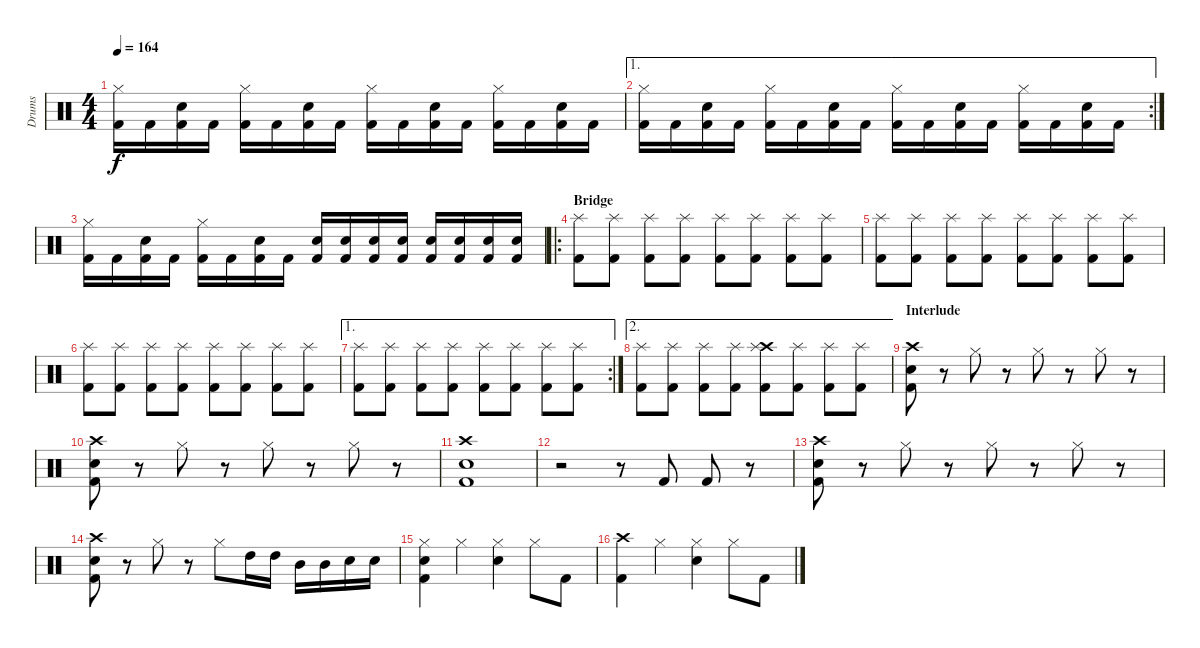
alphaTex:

\track ("Drums" "Drums") {instrument percussion}
\staff {score}
\articulation defaults
\ts (4 4)
\tempo 164
\clef neutral
\ks c
("Hi-Hat (closed)" "Kick (hit) 2").16{dy f} "Kick (hit) 2".16 ("Snare (hit) 2" "Kick (hit) 2").16 "Kick (hit) 2".16 ("Hi-Hat (closed)" "Kick (hit) 2").16 "Kick (hit) 2".16 ("Snare (hit) 2" "Kick (hit) 2").16 "Kick (hit) 2".16 ("Hi-Hat (closed)" "Kick (hit) 2").16 "Kick (hit) 2".16 ("Snare (hit) 2" "Kick (hit) 2").16 "Kick (hit) 2".16 ("Hi-Hat (closed)" "Kick (hit) 2").16 "Kick (hit) 2".16 ("Snare (hit) 2" "Kick (hit) 2").16 "Kick (hit) 2".16 |
\ae 1
\rc 2
("Hi-Hat (closed)" "Kick (hit) 2").16 "Kick (hit) 2".16 ("Snare (hit) 2" "Kick (hit) 2").16 "Kick (hit) 2".16 ("Hi-Hat (closed)" "Kick (hit) 2").16 "Kick (hit) 2".16 ("Snare (hit) 2" "Kick (hit) 2").16 "Kick (hit) 2".16 ("Hi-Hat (closed)" "Kick (hit) 2").16 "Kick (hit) 2".16 ("Snare (hit) 2" "Kick (hit) 2").16 "Kick (hit) 2".16 ("Hi-Hat (closed)" "Kick (hit) 2").16 "Kick (hit) 2".16 ("Snare (hit) 2" "Kick (hit) 2").16 "Kick (hit) 2".16 |
("Hi-Hat (closed)" "Kick (hit) 2").16 "Kick (hit) 2".16 ("Snare (hit) 2" "Kick (hit) 2").16 "Kick (hit) 2".16 ("Hi-Hat (closed)" "Kick (hit) 2").16 "Kick (hit) 2".16 ("Snare (hit) 2" "Kick (hit) 2").16 "Kick (hit) 2".16 ("Snare (hit) 2" "Kick (hit) 2").16 ("Snare (hit) 2" "Kick (hit) 2").16 ("Snare (hit) 2" "Kick (hit) 2").16 ("Snare (hit) 2" "Kick (hit) 2").16 ("Snare (hit) 2" "Kick (hit) 2").16 ("Snare (hit) 2" "Kick (hit) 2").16 ("Snare (hit) 2" "Kick (hit) 2").16 ("Snare (hit) 2" "Kick (hit) 2").16 |
\ro
\section ("" "Bridge")
("Splash (hit)" "Kick (hit) 2").8 ("Splash (hit)" "Kick (hit) 2").8 ("Splash (hit)" "Kick (hit) 2").8 ("Splash (hit)" "Kick (hit) 2").8 ("Splash (hit)" "Kick (hit) 2").8 ("Splash (hit)" "Kick (hit) 2").8 ("Splash (hit)" "Kick (hit) 2").8 ("Splash (hit)" "Kick (hit) 2").8 |
("Splash (hit)" "Kick (hit) 2").8 ("Splash (hit)" "Kick (hit) 2").8 ("Splash (hit)" "Kick (hit) 2").8 ("Splash (hit)" "Kick (hit) 2").8 ("Splash (hit)" "Kick (hit) 2").8 ("Splash (hit)" "Kick (hit) 2").8 ("Splash (hit)" "Kick (hit) 2").8 ("Splash (hit)" "Kick (hit) 2").8 |
("Splash (hit)" "Kick (hit) 2").8 ("Splash (hit)" "Kick (hit) 2").8 ("Splash (hit)" "Kick (hit) 2").8 ("Splash (hit)" "Kick (hit) 2").8 ("Splash (hit)" "Kick (hit) 2").8 ("Splash (hit)" "Kick (hit) 2").8 ("Splash (hit)" "Kick (hit) 2").8 ("Splash (hit)" "Kick (hit) 2").8 |
\ae 1
\rc 2
("Splash (hit)" "Kick (hit) 2").8 ("Splash (hit)" "Kick (hit) 2").8 ("Splash (hit)" "Kick (hit) 2").8 ("Splash (hit)" "Kick (hit) 2").8 ("Splash (hit)" "Kick (hit) 2").8 ("Splash (hit)" "Kick (hit) 2").8 ("Splash (hit)" "Kick (hit) 2").8 ("Splash (hit)" "Kick (hit) 2").8 |
\ae 2
("Splash (hit)" "Kick (hit) 2").8 ("Splash (hit)" "Kick (hit) 2").8 ("Splash (hit)" "Kick (hit) 2").8 ("Splash (hit)" "Kick (hit) 2").8 ("Crash high (hit)" "Splash (hit)" "Kick (hit) 2").8 ("Splash (hit)" "Kick (hit) 2").8 ("Splash (hit)" "Kick (hit) 2").8 ("Splash (hit)" "Kick (hit) 2").8 |
\section ("" "Interlude")
("Crash high (hit)" "Snare (hit) 2" "Kick (hit) 2").8 r.8 "Hi-Hat (closed)".8 r.8 "Hi-Hat (closed)".8 r.8 "Hi-Hat (closed)".8 r.8 |
("Crash high (hit)" "Snare (hit) 2" "Kick (hit) 2").8 r.8 "Hi-Hat (closed)".8 r.8 "Hi-Hat (closed)".8 r.8 "Hi-Hat (closed)".8 r.8 |
("Crash high (hit)" "Snare (hit) 2" "Kick (hit) 2").1 |
r.2 r.8 "Kick (hit) 2".8 "Kick (hit) 2".8 r.8 |
("Crash high (hit)" "Snare (hit) 2" "Kick (hit) 2").8 r.8 "Hi-Hat (closed)".8 r.8 "Hi-Hat (closed)".8 r.8 "Hi-Hat (closed)".8 r.8 |
("Crash high (hit)" "Snare (hit) 2" "Kick (hit) 2").8 r.8 "Hi-Hat (closed)".8 r.8 "Hi-Hat (closed)".8 "High Tom (hit)".16 "High Tom (hit)".16 "Mid Tom (hit)".16 "Mid Tom (hit)".16 "Snare (hit) 2".16 "Snare (hit) 2".16 |
("Hi-Hat (closed)" "Snare (hit) 2" "Kick (hit) 2").4 "Hi-Hat (closed)".4 ("Hi-Hat (closed)" "Snare (hit) 2").4 "Hi-Hat (closed)".8 "Kick (hit) 2".8 |
("Crash high (hit)" "Kick (hit) 2").4 "Hi-Hat (closed)".4 ("Hi-Hat (closed)" "Snare (hit) 2").4 "Hi-Hat (closed)".8 "Kick (hit) 2".8
